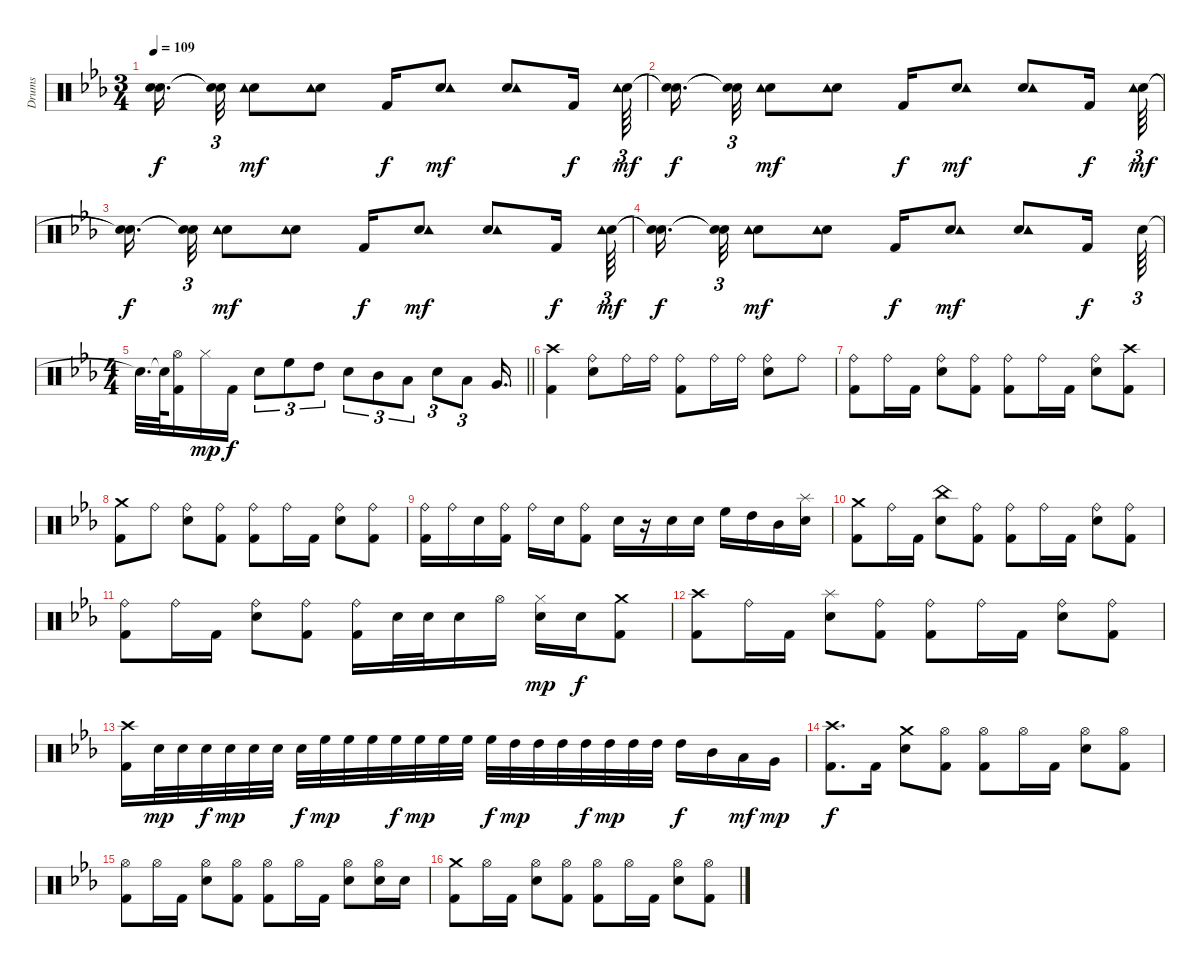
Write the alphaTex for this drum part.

\track ("Drums" "Drums") {instrument percussion}
\staff {score}
\articulation defaults
\ts (3 4)
\tempo 109
\clef neutral
\ks cminor
("Snare (hit)"{t} "Snare (hit)"{t}).16{d dy f beam splitsecondary} ("Snare (hit)"{t} "Snare (hit)"{t}).32{tu (3 2)} ("Electric Snare (hit)" "Tambourine (hit)").8{dy mf} ("Electric Snare (hit)" "Tambourine (hit)").8 "Kick (hit) 2".16{dy f} ("Electric Snare (hit)" "Tambourine (hit)").8{dy mf} ("Electric Snare (hit)" "Tambourine (hit)").8 "Kick (hit) 2".16{dy f} ("Electric Snare (hit)" "Tambourine (hit)").64{tu (3 2) dy mf} |
("Snare (hit)"{t} "Snare (hit)"{t}).16{d dy f beam splitsecondary} ("Snare (hit)"{t} "Snare (hit)"{t}).32{tu (3 2)} ("Electric Snare (hit)" "Tambourine (hit)").8{dy mf} ("Electric Snare (hit)" "Tambourine (hit)").8 "Kick (hit) 2".16{dy f} ("Electric Snare (hit)" "Tambourine (hit)").8{dy mf} ("Electric Snare (hit)" "Tambourine (hit)").8 "Kick (hit) 2".16{dy f} ("Electric Snare (hit)" "Tambourine (hit)").64{tu (3 2) dy mf} |
("Snare (hit)"{t} "Snare (hit)"{t}).16{d dy f beam splitsecondary} ("Snare (hit)"{t} "Snare (hit)"{t}).32{tu (3 2)} ("Electric Snare (hit)" "Tambourine (hit)").8{dy mf} ("Electric Snare (hit)" "Tambourine (hit)").8 "Kick (hit) 2".16{dy f} ("Electric Snare (hit)" "Tambourine (hit)").8{dy mf} ("Electric Snare (hit)" "Tambourine (hit)").8 "Kick (hit) 2".16{dy f} ("Electric Snare (hit)" "Tambourine (hit)").64{tu (3 2) dy mf} |
("Snare (hit)"{t} "Snare (hit)"{t}).16{d dy f beam splitsecondary} ("Snare (hit)"{t} "Snare (hit)"{t}).32{tu (3 2)} ("Electric Snare (hit)" "Tambourine (hit)").8{dy mf} ("Electric Snare (hit)" "Tambourine (hit)").8 "Kick (hit) 2".16{dy f} ("Electric Snare (hit)" "Tambourine (hit)").8{dy mf} ("Electric Snare (hit)" "Tambourine (hit)").8 "Kick (hit) 2".16{dy f} "Electric Snare (hit)".64{tu (3 2)} |
\ts (4 4)
\barLineRight lightlight "Snare (hit)"{t}.32{d} "Snare (hit)"{t}.64
("Kick (hit) 2" "Hi-Hat (open)").16 "Hi-Hat (closed)".16{dy mp} "Kick (hit) 2".16{dy f} "Electric Snare (hit)".8{tu (3 2)} "High Floor Tom (hit)".8{tu (3 2)} "High Tom (hit)".8{tu (3 2)} "Electric Snare (hit)".8{tu (3 2)} "Mid Tom (hit)".8{tu (3 2)} "Low Tom (hit)".8{tu (3 2)} "Electric Snare (hit)".8{tu (3 2)} "Low Tom (hit)".8{tu (3 2)} "Very Low Tom (hit)".16{d} |
("Crash high (hit)" "Kick (hit) 2").4 ("Ride (bell)" "Electric Snare (hit)").8 "Ride (bell)".16 "Ride (bell)".16 ("Ride (bell)" "Kick (hit) 2").8 "Ride (bell)".16 "Ride (bell)".16 ("Electric Snare (hit)" "Ride (bell)").8 "Ride (bell)".8 |
("Kick (hit) 2" "Ride (bell)").8 "Ride (bell)".16 "Kick (hit) 2".16 ("Electric Snare (hit)" "Ride (bell)").8 ("Kick (hit) 2" "Ride (bell)").8 ("Kick (hit) 2" "Ride (bell)").8 "Ride (bell)".16 "Kick (hit) 2".16 ("Ride (bell)" "Electric Snare (hit)").8 ("Kick (hit) 2" "Crash high (hit)").8 |
("Kick (hit) 2" "Crash medium (hit)").8 "Ride (bell)".8 ("Electric Snare (hit)" "Ride (bell)").8 ("Kick (hit) 2" "Ride (bell)").8 ("Kick (hit) 2" "Ride (bell)").8 "Ride (bell)".16 "Kick (hit) 2".16 ("Electric Snare (hit)" "Ride (bell)").8 ("Kick (hit) 2" "Ride (bell)").8 |
("Kick (hit) 2" "Ride (bell)").16 "Ride (bell)".16 "Electric Snare (hit)".16 ("Kick (hit) 2" "Ride (bell)").16 "Ride (bell)".16 "Electric Snare (hit)".16 ("Kick (hit) 2" "Ride (bell)").8 "Electric Snare (hit)".16 r.16 "Electric Snare (hit)".16 "Electric Snare (hit)".16 "High Floor Tom (hit)".16 "High Tom (hit)".16 "Mid Tom (hit)".16 ("Electric Snare (hit)" "Splash (hit)").16 |
("Kick (hit) 2" "Crash medium (hit)").8 "Ride (bell)".16 "Kick (hit) 2".16 ("Electric Snare (hit)" "China (hit)").8 ("Kick (hit) 2" "Ride (bell)").8 ("Kick (hit) 2" "Ride (bell)").8 "Ride (bell)".16 "Kick (hit) 2".16 ("Ride (bell)" "Electric Snare (hit)").8 ("Ride (bell)" "Kick (hit) 2").8 |
("Ride (bell)" "Kick (hit) 2").8 "Ride (bell)".16 "Kick (hit) 2".16 ("Electric Snare (hit)" "Ride (bell)").8 ("Kick (hit) 2" "Ride (bell)").8 ("Kick (hit) 2" "Ride (bell)").16 "Electric Snare (hit)".32 "Electric Snare (hit)".32 "Electric Snare (hit)".16 "Hi-Hat (open)".16 ("Electric Snare (hit)" "Hi-Hat (closed)").16{dy mp} "Electric Snare (hit)".16{dy f} ("Kick (hit) 2" "Crash medium (hit)").8 |
("Kick (hit) 2" "Crash high (hit)").8 "Ride (bell)".16 "Kick (hit) 2".16 ("Electric Snare (hit)" "Splash (hit)").8 ("Kick (hit) 2" "Ride (bell)").8 ("Kick (hit) 2" "Ride (bell)").8 "Ride (bell)".16 "Kick (hit) 2".16 ("Ride (bell)" "Electric Snare (hit)").8 ("Ride (bell)" "Kick (hit) 2").8 |
("Kick (hit) 2" "Crash high (hit)").16 "Electric Snare (hit)".32{dy mp} "Electric Snare (hit)".32 "Electric Snare (hit)".32{dy f} "Electric Snare (hit)".32{dy mp} "Electric Snare (hit)".32 "Electric Snare (hit)".32 "Electric Snare (hit)".32{dy f} "High Floor Tom (hit)".32{dy mp} "High Floor Tom (hit)".32 "High Floor Tom (hit)".32 "High Floor Tom (hit)".32{dy f} "High Floor Tom (hit)".32{dy mp} "High Floor Tom (hit)".32 "High Floor Tom (hit)".32 "High Floor Tom (hit)".32{dy f} "High Tom (hit)".32{dy mp} "High Tom (hit)".32 "High Tom (hit)".32 "High Tom (hit)".32{dy f} "High Tom (hit)".32{dy mp} "High Tom (hit)".32 "High Tom (hit)".32 "High Tom (hit)".16{dy f} "Mid Tom (hit)".16 "Low Tom (hit)".16{dy mf} "Very Low Tom (hit)".16{dy mp} |
("Crash high (hit)" "Kick (hit) 2").8{d dy f} "Kick (hit) 2".16 ("Electric Snare (hit)" "Crash medium (hit)").8 ("Kick (hit) 2" "Hi-Hat (open)").8 ("Kick (hit) 2" "Hi-Hat (open)").8 "Hi-Hat (open)".16 "Kick (hit) 2".16 ("Electric Snare (hit)" "Hi-Hat (open)").8 ("Kick (hit) 2" "Hi-Hat (open)").8 |
("Kick (hit) 2" "Hi-Hat (open)").8 "Hi-Hat (open)".16 "Kick (hit) 2".16 ("Electric Snare (hit)" "Hi-Hat (open)").8 ("Kick (hit) 2" "Hi-Hat (open)").8 ("Kick (hit) 2" "Hi-Hat (open)").8 "Hi-Hat (open)".16 "Kick (hit) 2".16 ("Electric Snare (hit)" "Hi-Hat (open)").8 ("Electric Snare (hit)" "Hi-Hat (open)").16 "Electric Snare (hit)".16 |
("Kick (hit) 2" "Crash medium (hit)").8 "Hi-Hat (open)".16 "Kick (hit) 2".16 ("Electric Snare (hit)" "Hi-Hat (open)").8 ("Kick (hit) 2" "Hi-Hat (open)").8 ("Kick (hit) 2" "Hi-Hat (open)").8 "Hi-Hat (open)".16 "Kick (hit) 2".16 ("Electric Snare (hit)" "Hi-Hat (open)").8 ("Hi-Hat (open)" "Kick (hit) 2").8
